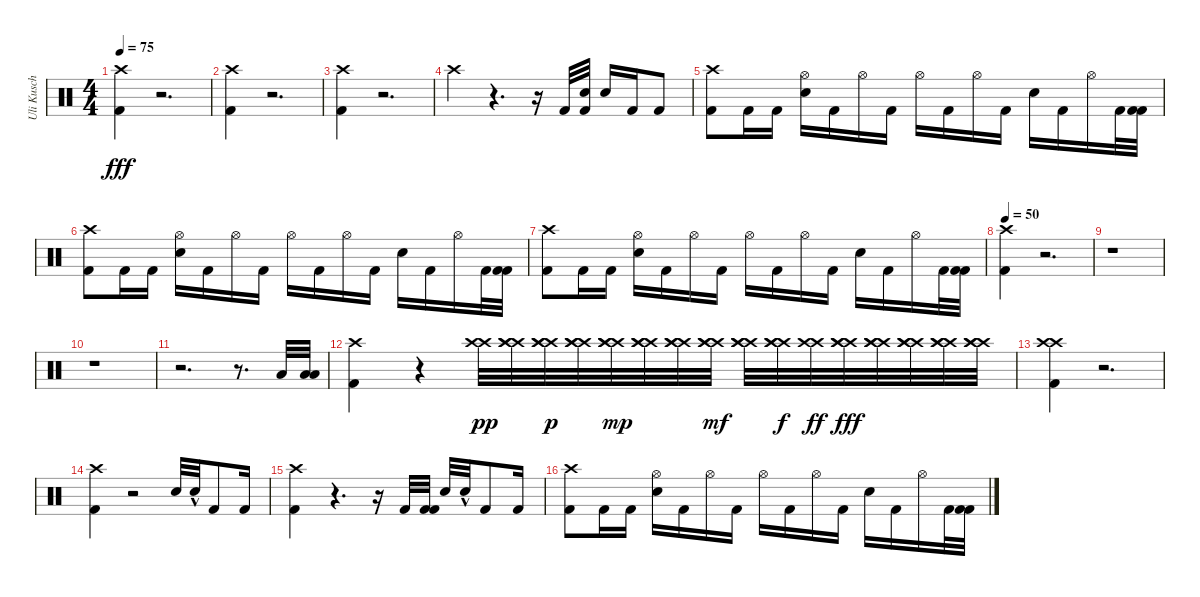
\track ("Uli Kusch" "Uli Kusch") {instrument percussion}
\staff {score}
\articulation defaults
\ts (4 4)
\tempo 75
\clef neutral
\ks c
("Kick (hit) 2" "Crash high (hit)").4{dy fff} r.2{d} |
("Kick (hit) 2" "Crash high (hit)").4 r.2{d} |
("Kick (hit) 2" "Crash high (hit)").4 r.2{d} |
"Crash high (hit)".4 r.4{d} r.16 "Kick (hit) 2".32 ("Kick (hit) 2" "Electric Snare (hit)").32 "Electric Snare (hit)".16 "Kick (hit) 2".16 "Kick (hit) 2".8 |
("Crash high (hit)" "Kick (hit) 2").8 "Kick (hit) 2".16 "Kick (hit) 2".16 ("Hi-Hat (open)" "Electric Snare (hit)").16 "Kick (hit) 2".16 "Hi-Hat (open)".16 "Kick (hit) 2".16 "Hi-Hat (open)".16 "Kick (hit) 2".16 "Hi-Hat (open)".16 "Kick (hit) 2".16 "Electric Snare (hit)".16 "Kick (hit) 2".16 "Hi-Hat (open)".16 "Kick (hit) 2".32 ("Kick (hit) 2" "Kick (hit) 2").32 |
("Crash high (hit)" "Kick (hit) 2").8 "Kick (hit) 2".16 "Kick (hit) 2".16 ("Hi-Hat (open)" "Electric Snare (hit)").16 "Kick (hit) 2".16 "Hi-Hat (open)".16 "Kick (hit) 2".16 "Hi-Hat (open)".16 "Kick (hit) 2".16 "Hi-Hat (open)".16 "Kick (hit) 2".16 "Electric Snare (hit)".16 "Kick (hit) 2".16 "Hi-Hat (open)".16 "Kick (hit) 2".32 ("Kick (hit) 2" "Kick (hit) 2").32 |
("Crash high (hit)" "Kick (hit) 2").8 "Kick (hit) 2".16 "Kick (hit) 2".16 ("Hi-Hat (open)" "Electric Snare (hit)").16 "Kick (hit) 2".16 "Hi-Hat (open)".16 "Kick (hit) 2".16 "Hi-Hat (open)".16 "Kick (hit) 2".16 "Hi-Hat (open)".16 "Kick (hit) 2".16 "Electric Snare (hit)".16 "Kick (hit) 2".16 "Hi-Hat (open)".16 "Kick (hit) 2".32 ("Kick (hit) 2" "Kick (hit) 2").32 |
\tempo 50
("Kick (hit) 2" "Crash high (hit)").4 r.2{d} |
r.1 |
r.1 |
r.2{d} r.8{d} "Low Tom (hit)".32 ("Low Tom (hit)" "Low Tom (hit)").32 |
("Kick (hit) 2" "Crash high (hit)").4 r.4 ("Crash high (hit)" "Crash high (hit)").32{dy pp} ("Crash high (hit)" "Crash high (hit)" "Crash high (hit)").32 ("Crash high (hit)" "Crash high (hit)" "Crash high (hit)").32{dy p} ("Crash high (hit)" "Crash high (hit)" "Crash high (hit)").32 ("Crash high (hit)" "Crash high (hit)" "Crash high (hit)").32{dy mp} ("Crash high (hit)" "Crash high (hit)" "Crash high (hit)").32 ("Crash high (hit)" "Crash high (hit)" "Crash high (hit)").32 ("Crash high (hit)" "Crash high (hit)" "Crash high (hit)").32{dy mf} ("Crash high (hit)" "Crash high (hit)" "Crash high (hit)").32 ("Crash high (hit)" "Crash high (hit)" "Crash high (hit)").32{dy f} ("Crash high (hit)" "Crash high (hit)").32{dy ff} ("Crash high (hit)" "Crash high (hit)" "Crash high (hit)").32{dy fff} ("Crash high (hit)" "Crash high (hit)" "Crash high (hit)").32 ("Crash high (hit)" "Crash high (hit)" "Crash high (hit)").32 ("Crash high (hit)" "Crash high (hit)" "Crash high (hit)").32 ("Crash high (hit)" "Crash high (hit)" "Crash high (hit)").32 |
("Crash high (hit)" "Kick (hit) 2" "Crash high (hit)").4 r.2{d} |
("Kick (hit) 2" "Crash high (hit)").4 r.2 "Electric Snare (hit)".32 "Electric Snare (hit)"{hac}.32 "Kick (hit) 2".8 "Kick (hit) 2".16 |
("Kick (hit) 2" "Crash high (hit)").4 r.4{d} r.16 "Kick (hit) 2".32 ("Kick (hit) 2" "Kick (hit) 2").32 "Electric Snare (hit)".32 "Electric Snare (hit)"{hac}.32 "Kick (hit) 2".8 "Kick (hit) 2".16 |
("Crash high (hit)" "Kick (hit) 2").8 "Kick (hit) 2".16 "Kick (hit) 2".16 ("Hi-Hat (open)" "Electric Snare (hit)").16 "Kick (hit) 2".16 "Hi-Hat (open)".16 "Kick (hit) 2".16 "Hi-Hat (open)".16 "Kick (hit) 2".16 "Hi-Hat (open)".16 "Kick (hit) 2".16 "Electric Snare (hit)".16 "Kick (hit) 2".16 "Hi-Hat (open)".16 "Kick (hit) 2".32 ("Kick (hit) 2" "Kick (hit) 2").32
